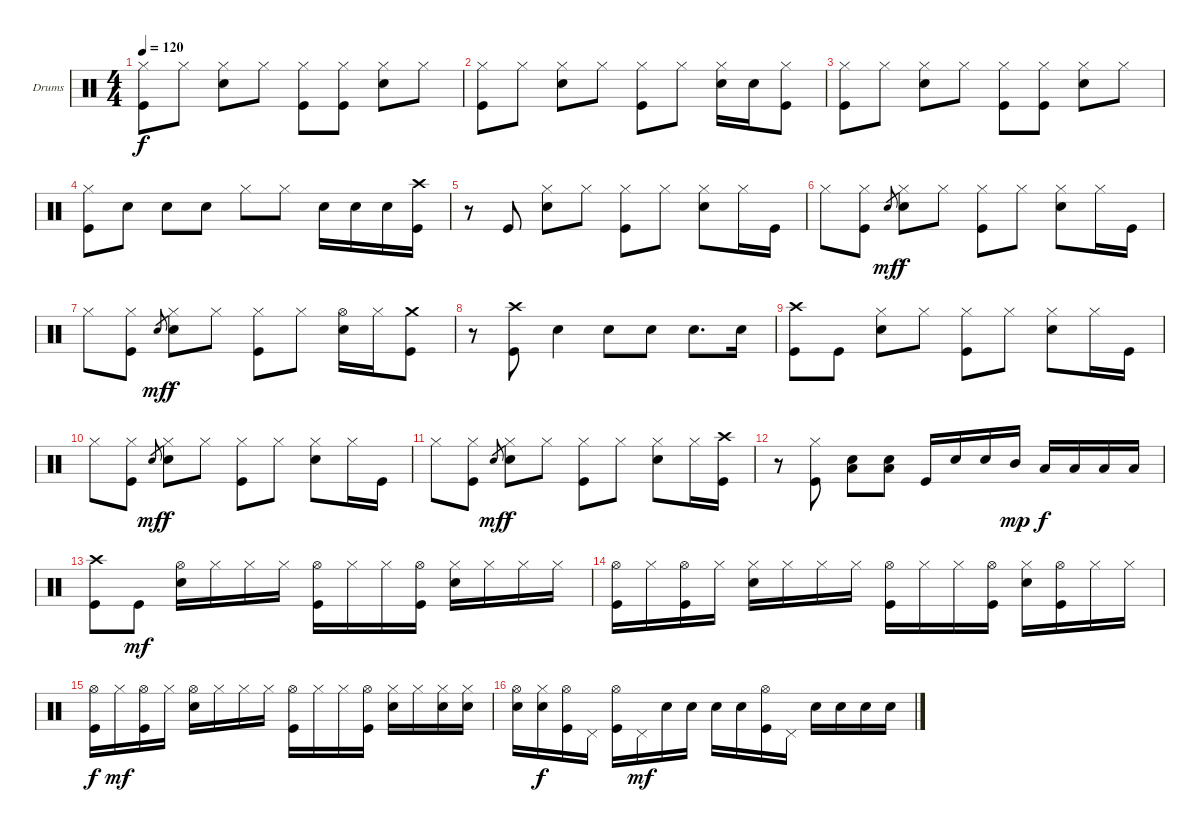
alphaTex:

\defaultSystemsLayout 4
\bracketExtendMode groupsimilarinstruments
\firstSystemTrackNameOrientation horizontal
\otherSystemsTrackNameOrientation horizontal
\track ("Drumkit" "Drums") {instrument percussion}
\staff {score}
\articulation defaults
\ts (4 4)
\tempo 120
\clef neutral
\scale
0.333333
\ks c
("Hi-Hat (closed)" "Kick (hit)").8{dy f} "Hi-Hat (closed)".8 ("Hi-Hat (closed)" "Snare (hit) 2").8 "Hi-Hat (closed)".8 ("Hi-Hat (closed)" "Kick (hit)").8 ("Hi-Hat (closed)" "Kick (hit)").8 ("Hi-Hat (closed)" "Snare (hit) 2").8 "Hi-Hat (closed)".8 |
\scale
0.333333 ("Hi-Hat (closed)" "Kick (hit)").8 "Hi-Hat (closed)".8 ("Hi-Hat (closed)" "Snare (hit) 2").8 "Hi-Hat (closed)".8 ("Hi-Hat (closed)" "Kick (hit)").8 "Hi-Hat (closed)".8 ("Hi-Hat (closed)" "Snare (hit) 2").16 "Snare (hit) 2".16 ("Hi-Hat (closed)" "Kick (hit)").8 |
\scale
0.333333 ("Hi-Hat (closed)" "Kick (hit)").8 "Hi-Hat (closed)".8 ("Hi-Hat (closed)" "Snare (hit) 2").8 "Hi-Hat (closed)".8 ("Hi-Hat (closed)" "Kick (hit)").8 ("Hi-Hat (closed)" "Kick (hit)").8 ("Hi-Hat (closed)" "Snare (hit) 2").8 "Hi-Hat (closed)".8 |
\scale
0.333333 ("Hi-Hat (closed)" "Kick (hit)").8 "Snare (hit) 2".8 "Snare (hit) 2".8 "Snare (hit) 2".8 "Hi-Hat (closed)".8 "Hi-Hat (closed)".8 "Snare (hit) 2".16 "Snare (hit) 2".16 "Snare (hit) 2".16 ("Crash high (hit)" "Kick (hit)").16 |
\scale
0.333333 r.8 "Kick (hit)".8 ("Hi-Hat (closed)" "Snare (hit) 2").8 "Hi-Hat (closed)".8 ("Hi-Hat (closed)" "Kick (hit)").8 "Hi-Hat (closed)".8 ("Hi-Hat (closed)" "Snare (hit) 2").8 "Hi-Hat (closed)".16 "Kick (hit)".16 |
\scale
0.333333 "Hi-Hat (closed)".8 ("Hi-Hat (closed)" "Kick (hit)").8 "Snare (hit) 2".8{gr dy mf} ("Hi-Hat (closed)" "Snare (hit) 2").8{dy f} "Hi-Hat (closed)".8 ("Hi-Hat (closed)" "Kick (hit)").8 "Hi-Hat (closed)".8 ("Hi-Hat (closed)" "Snare (hit) 2").8 "Hi-Hat (closed)".16 "Kick (hit)".16 |
\scale
0.333333 "Hi-Hat (closed)".8 ("Hi-Hat (closed)" "Kick (hit)").8 "Snare (hit) 2".8{gr dy mf} ("Hi-Hat (closed)" "Snare (hit) 2").8{dy f} "Hi-Hat (closed)".8 ("Hi-Hat (closed)" "Kick (hit)").8 "Hi-Hat (closed)".8 ("Hi-Hat (open)" "Snare (hit) 2").16 "Hi-Hat (closed)".16 ("Crash medium (hit)" "Kick (hit)").8 |
\scale
0.333333 r.8 ("Crash high (hit)" "Kick (hit)").8 "Snare (hit) 2".4 "Snare (hit) 2".8 "Snare (hit) 2".8 "Snare (hit) 2".8{d} "Snare (hit) 2".16 |
\scale
0.333333 ("Crash high (hit)" "Kick (hit)").8 "Kick (hit)".8 ("Hi-Hat (closed)" "Snare (hit) 2").8 "Hi-Hat (closed)".8 ("Hi-Hat (closed)" "Kick (hit)").8 "Hi-Hat (closed)".8 ("Hi-Hat (closed)" "Snare (hit) 2").8 "Hi-Hat (closed)".16 "Kick (hit)".16 |
\scale
0.333333 "Hi-Hat (closed)".8 ("Hi-Hat (closed)" "Kick (hit)").8 "Snare (hit) 2".8{gr dy mf} ("Hi-Hat (closed)" "Snare (hit) 2").8{dy f} "Hi-Hat (closed)".8 ("Hi-Hat (closed)" "Kick (hit)").8 "Hi-Hat (closed)".8 ("Hi-Hat (closed)" "Snare (hit) 2").8 "Hi-Hat (closed)".16 "Kick (hit)".16 |
\scale
0.333333 "Hi-Hat (closed)".8 ("Hi-Hat (closed)" "Kick (hit)").8 "Snare (hit) 2".8{gr dy mf} ("Hi-Hat (closed)" "Snare (hit) 2").8{dy f} "Hi-Hat (closed)".8 ("Hi-Hat (closed)" "Kick (hit)").8 "Hi-Hat (closed)".8 ("Hi-Hat (closed)" "Snare (hit) 2").8 "Hi-Hat (closed)".16 ("Crash high (hit)" "Kick (hit)").16 |
\scale
0.333333 r.8 ("Hi-Hat (closed)" "Kick (hit)").8 ("Low Tom (hit)" "Snare (hit) 2").8 ("Low Tom (hit)" "Snare (hit) 2").8 "Kick (hit)".16 "Snare (hit) 2".16 "Snare (hit) 2".16 "Mid Tom (hit)".16{dy mp} "Low Tom (hit)".16{dy f} "Low Tom (hit)".16 "Low Tom (hit)".16 "Low Tom (hit)".16 |
\scale
0.333333 ("Crash high (hit)" "Kick (hit)").8 "Kick (hit)".8{dy mf} ("Hi-Hat (open)" "Snare (hit) 2").16 "Hi-Hat (closed)".16 "Hi-Hat (closed)".16 "Hi-Hat (closed)".16 ("Hi-Hat (open)" "Kick (hit)").16 "Hi-Hat (closed)".16 "Hi-Hat (closed)".16 ("Hi-Hat (open)" "Kick (hit)").16 ("Hi-Hat (closed)" "Snare (hit) 2").16 "Hi-Hat (closed)".16 "Hi-Hat (closed)".16 "Hi-Hat (closed)".16 |
\scale
0.333333 ("Hi-Hat (open)" "Kick (hit)").16 "Hi-Hat (closed)".16 ("Hi-Hat (open)" "Kick (hit)").16 "Hi-Hat (closed)".16 ("Hi-Hat (closed)" "Snare (hit) 2").16 "Hi-Hat (closed)".16 "Hi-Hat (closed)".16 "Hi-Hat (closed)".16 ("Hi-Hat (open)" "Kick (hit)").16 "Hi-Hat (closed)".16 "Hi-Hat (closed)".16 ("Hi-Hat (open)" "Kick (hit)").16 ("Hi-Hat (closed)" "Snare (hit) 2").16 ("Hi-Hat (open)" "Kick (hit)").16 "Hi-Hat (closed)".16 "Hi-Hat (closed)".16 |
\scale
0.333333 ("Hi-Hat (open)" "Kick (hit)").16{dy f} "Hi-Hat (closed)".16{dy mf} ("Hi-Hat (open)" "Kick (hit)").16 "Hi-Hat (closed)".16 ("Hi-Hat (open)" "Snare (hit) 2").16 "Hi-Hat (closed)".16 "Hi-Hat (closed)".16 "Hi-Hat (closed)".16 ("Hi-Hat (open)" "Kick (hit)").16 "Hi-Hat (closed)".16 "Hi-Hat (closed)".16 ("Hi-Hat (open)" "Kick (hit)").16 ("Hi-Hat (closed)" "Snare (hit) 2").16 "Hi-Hat (closed)".16 ("Hi-Hat (closed)" "Snare (hit) 2").16 ("Hi-Hat (closed)" "Snare (hit) 2").16 |
\scale
0.333333 ("Hi-Hat (open)" "Snare (hit) 2").16 ("Hi-Hat (closed)" "Snare (hit) 2").16{dy f} ("Hi-Hat (open)" "Kick (hit)").16 "Pedal Hi-Hat (hit)".16 ("Hi-Hat (open)" "Kick (hit)").16 "Pedal Hi-Hat (hit)".16{dy mf} "Snare (hit) 2".16 "Snare (hit) 2".16 "Snare (hit) 2".16 "Snare (hit) 2".16 ("Hi-Hat (open)" "Kick (hit)").16 "Pedal Hi-Hat (hit)".16 "Snare (hit) 2".16 "Snare (hit) 2".16 "Snare (hit) 2".16 "Snare (hit) 2".16
